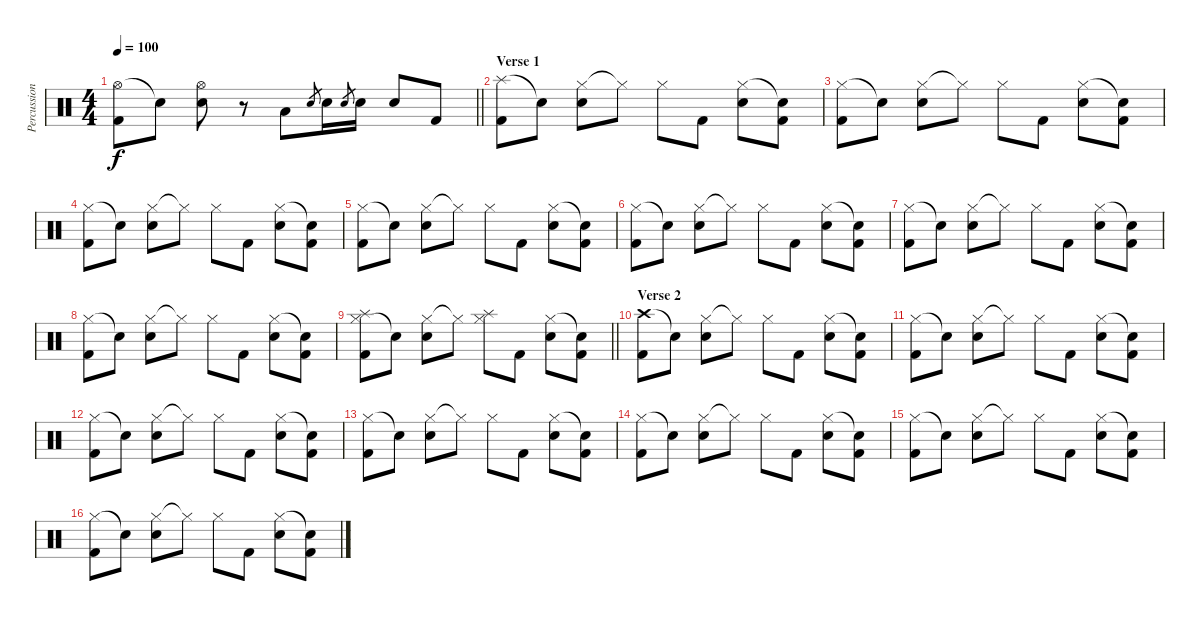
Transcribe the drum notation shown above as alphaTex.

\track ("Percussion(Tomi)" "Percussion") {instrument percussion}
\staff {score}
\articulation defaults
\ts (4 4)
\tempo 100
\clef neutral
\barLineRight lightlight
\ks c
("Hi-Hat (open)" "Kick (hit) 2").8{dy f} "Snare (hit)"{t}.8 ("Hi-Hat (open)" "Electric Snare (hit)").8 r.8 "Low Tom (hit)".8 "Electric Snare (hit)".8{gr} "Electric Snare (hit)".16 "Electric Snare (hit)".8{gr} "Electric Snare (hit)".16 "Electric Snare (hit)".8 "Kick (hit) 2".8 |
\section ("" "Verse 1")
("Splash (hit)" "Kick (hit) 2").8 "Snare (hit)"{t}.8 ("Hi-Hat (closed)" "Electric Snare (hit)").8 "Hi-Hat (closed)"{t}.8 "Hi-Hat (closed)".8 "Kick (hit) 2".8 ("Hi-Hat (closed)" "Electric Snare (hit)").8 ("Snare (hit)"{t} "Kick (hit) 2").8 |
("Hi-Hat (closed)" "Kick (hit) 2").8 "Snare (hit)"{t}.8 ("Hi-Hat (closed)" "Electric Snare (hit)").8 "Hi-Hat (closed)"{t}.8 "Hi-Hat (closed)".8 "Kick (hit) 2".8 ("Hi-Hat (closed)" "Electric Snare (hit)").8 ("Snare (hit)"{t} "Kick (hit) 2").8 |
("Hi-Hat (closed)" "Kick (hit) 2").8 "Snare (hit)"{t}.8 ("Hi-Hat (closed)" "Electric Snare (hit)").8 "Hi-Hat (closed)"{t}.8 "Hi-Hat (closed)".8 "Kick (hit) 2".8 ("Hi-Hat (closed)" "Electric Snare (hit)").8 ("Snare (hit)"{t} "Kick (hit) 2").8 |
("Hi-Hat (closed)" "Kick (hit) 2").8 "Snare (hit)"{t}.8 ("Hi-Hat (closed)" "Electric Snare (hit)").8 "Hi-Hat (closed)"{t}.8 "Hi-Hat (closed)".8 "Kick (hit) 2".8 ("Hi-Hat (closed)" "Electric Snare (hit)").8 ("Snare (hit)"{t} "Kick (hit) 2").8 |
("Hi-Hat (closed)" "Kick (hit) 2").8 "Snare (hit)"{t}.8 ("Hi-Hat (closed)" "Electric Snare (hit)").8 "Hi-Hat (closed)"{t}.8 "Hi-Hat (closed)".8 "Kick (hit) 2".8 ("Hi-Hat (closed)" "Electric Snare (hit)").8 ("Snare (hit)"{t} "Kick (hit) 2").8 |
("Hi-Hat (closed)" "Kick (hit) 2").8 "Snare (hit)"{t}.8 ("Hi-Hat (closed)" "Electric Snare (hit)").8 "Hi-Hat (closed)"{t}.8 "Hi-Hat (closed)".8 "Kick (hit) 2".8 ("Hi-Hat (closed)" "Electric Snare (hit)").8 ("Snare (hit)"{t} "Kick (hit) 2").8 |
("Hi-Hat (closed)" "Kick (hit) 2").8 "Snare (hit)"{t}.8 ("Hi-Hat (closed)" "Electric Snare (hit)").8 "Hi-Hat (closed)"{t}.8 "Hi-Hat (closed)".8 "Kick (hit) 2".8 ("Hi-Hat (closed)" "Electric Snare (hit)").8 ("Snare (hit)"{t} "Kick (hit) 2").8 |
\barLineRight lightlight
("Hi-Hat (closed)" "Splash (hit)" "Kick (hit) 2").8 "Snare (hit)"{t}.8 ("Hi-Hat (closed)" "Electric Snare (hit)").8 "Hi-Hat (closed)"{t}.8 ("Hi-Hat (closed)" "Splash (hit)").8 "Kick (hit) 2".8 ("Hi-Hat (closed)" "Electric Snare (hit)").8 ("Snare (hit)"{t} "Kick (hit) 2").8 |
\section ("" "Verse 2")
("Crash high (hit)" "Kick (hit) 2").8 "Snare (hit)"{t}.8 ("Hi-Hat (closed)" "Electric Snare (hit)").8 "Hi-Hat (closed)"{t}.8 "Hi-Hat (closed)".8 "Kick (hit) 2".8 ("Hi-Hat (closed)" "Electric Snare (hit)").8 ("Snare (hit)"{t} "Kick (hit) 2").8 |
("Hi-Hat (closed)" "Kick (hit) 2").8 "Snare (hit)"{t}.8 ("Hi-Hat (closed)" "Electric Snare (hit)").8 "Hi-Hat (closed)"{t}.8 "Hi-Hat (closed)".8 "Kick (hit) 2".8 ("Hi-Hat (closed)" "Electric Snare (hit)").8 ("Snare (hit)"{t} "Kick (hit) 2").8 |
("Hi-Hat (closed)" "Kick (hit) 2").8 "Snare (hit)"{t}.8 ("Hi-Hat (closed)" "Electric Snare (hit)").8 "Hi-Hat (closed)"{t}.8 "Hi-Hat (closed)".8 "Kick (hit) 2".8 ("Hi-Hat (closed)" "Electric Snare (hit)").8 ("Snare (hit)"{t} "Kick (hit) 2").8 |
("Hi-Hat (closed)" "Kick (hit) 2").8 "Snare (hit)"{t}.8 ("Hi-Hat (closed)" "Electric Snare (hit)").8 "Hi-Hat (closed)"{t}.8 "Hi-Hat (closed)".8 "Kick (hit) 2".8 ("Hi-Hat (closed)" "Electric Snare (hit)").8 ("Snare (hit)"{t} "Kick (hit) 2").8 |
("Hi-Hat (closed)" "Kick (hit) 2").8 "Snare (hit)"{t}.8 ("Hi-Hat (closed)" "Electric Snare (hit)").8 "Hi-Hat (closed)"{t}.8 "Hi-Hat (closed)".8 "Kick (hit) 2".8 ("Hi-Hat (closed)" "Electric Snare (hit)").8 ("Snare (hit)"{t} "Kick (hit) 2").8 |
("Hi-Hat (closed)" "Kick (hit) 2").8 "Snare (hit)"{t}.8 ("Hi-Hat (closed)" "Electric Snare (hit)").8 "Hi-Hat (closed)"{t}.8 "Hi-Hat (closed)".8 "Kick (hit) 2".8 ("Hi-Hat (closed)" "Electric Snare (hit)").8 ("Snare (hit)"{t} "Kick (hit) 2").8 |
("Hi-Hat (closed)" "Kick (hit) 2").8 "Snare (hit)"{t}.8 ("Hi-Hat (closed)" "Electric Snare (hit)").8 "Hi-Hat (closed)"{t}.8 "Hi-Hat (closed)".8 "Kick (hit) 2".8 ("Hi-Hat (closed)" "Electric Snare (hit)").8 ("Snare (hit)"{t} "Kick (hit) 2").8
